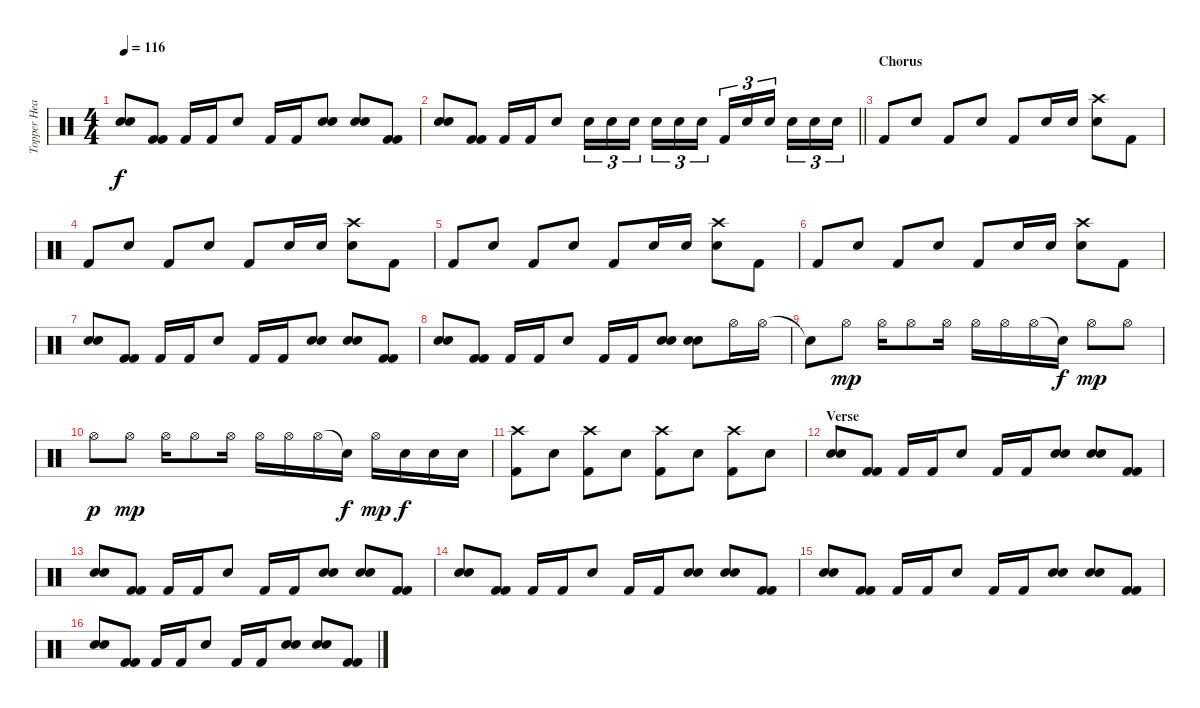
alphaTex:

\track ("Topper Headon - Percussion" "Topper Hea") {instrument percussion}
\staff {score}
\articulation defaults
\ts (4 4)
\tempo 116
\clef neutral
\ks c
("Snare (hit) 2" "Snare (hit) 2").8{dy f} ("Kick (hit) 2" "Kick (hit) 2").8 "Kick (hit) 2".16 "Kick (hit) 2".16 "Snare (hit) 2".8 "Kick (hit) 2".16 "Kick (hit) 2".16 ("Snare (hit) 2" "Snare (hit) 2").8 ("Snare (hit) 2" "Snare (hit) 2").8 ("Kick (hit) 2" "Kick (hit) 2").8 |
\barLineRight lightlight
("Snare (hit) 2" "Snare (hit) 2").8 ("Kick (hit) 2" "Kick (hit) 2").8 "Kick (hit) 2".16 "Kick (hit) 2".16 "Snare (hit) 2".8 "Snare (hit) 2".16{tu (3 2)} "Snare (hit) 2".16{tu (3 2)} "Snare (hit) 2".16{tu (3 2)} "Snare (hit) 2".16{tu (3 2)} "Snare (hit) 2".16{tu (3 2)} "Snare (hit) 2".16{tu (3 2)} "Kick (hit) 2".16{tu (3 2)} "Snare (hit) 2".16{tu (3 2)} "Snare (hit) 2".16{tu (3 2)} "Snare (hit) 2".16{tu (3 2)} "Snare (hit) 2".16{tu (3 2)} "Snare (hit) 2".16{tu (3 2)} |
\section ("" "Chorus")
"Kick (hit) 2".8 "Snare (hit) 2".8 "Kick (hit) 2".8 "Snare (hit) 2".8 "Kick (hit) 2".8 "Snare (hit) 2".16 "Snare (hit) 2".16 ("Crash high (hit)" "Snare (hit) 2").8 "Kick (hit) 2".8 |
"Kick (hit) 2".8 "Snare (hit) 2".8 "Kick (hit) 2".8 "Snare (hit) 2".8 "Kick (hit) 2".8 "Snare (hit) 2".16 "Snare (hit) 2".16 ("Crash high (hit)" "Snare (hit) 2").8 "Kick (hit) 2".8 |
"Kick (hit) 2".8 "Snare (hit) 2".8 "Kick (hit) 2".8 "Snare (hit) 2".8 "Kick (hit) 2".8 "Snare (hit) 2".16 "Snare (hit) 2".16 ("Crash high (hit)" "Snare (hit) 2").8 "Kick (hit) 2".8 |
"Kick (hit) 2".8 "Snare (hit) 2".8 "Kick (hit) 2".8 "Snare (hit) 2".8 "Kick (hit) 2".8 "Snare (hit) 2".16 "Snare (hit) 2".16 ("Crash high (hit)" "Snare (hit) 2").8 "Kick (hit) 2".8 |
("Snare (hit) 2" "Snare (hit) 2").8 ("Kick (hit) 2" "Kick (hit) 2").8 "Kick (hit) 2".16 "Kick (hit) 2".16 "Snare (hit) 2".8 "Kick (hit) 2".16 "Kick (hit) 2".16 ("Snare (hit) 2" "Snare (hit) 2").8 ("Snare (hit) 2" "Snare (hit) 2").8 ("Kick (hit) 2" "Kick (hit) 2").8 |
("Snare (hit) 2" "Snare (hit) 2").8 ("Kick (hit) 2" "Kick (hit) 2").8 "Kick (hit) 2".16 "Kick (hit) 2".16 "Snare (hit) 2".8 "Kick (hit) 2".16 "Kick (hit) 2".16 ("Snare (hit) 2" "Snare (hit) 2").8 ("Snare (hit) 2" "Snare (hit) 2").8 "Hi-Hat (open)".16 "Hi-Hat (open)".16 |
"Snare (hit)"{t}.8 "Hi-Hat (open)".8{dy mp} "Hi-Hat (open)".16 "Hi-Hat (open)".8 "Hi-Hat (open)".16 "Hi-Hat (open)".16 "Hi-Hat (open)".16 "Hi-Hat (open)".16 "Snare (hit)"{t}.16{dy f} "Hi-Hat (open)".8{dy mp} "Hi-Hat (open)".8 |
"Hi-Hat (open)".8{dy p} "Hi-Hat (open)".8{dy mp} "Hi-Hat (open)".16 "Hi-Hat (open)".8 "Hi-Hat (open)".16 "Hi-Hat (open)".16 "Hi-Hat (open)".16 "Hi-Hat (open)".16 "Snare (hit)"{t}.16{dy f} "Hi-Hat (open)".16{dy mp} "Snare (hit) 2".16{dy f} "Snare (hit) 2".16 "Snare (hit) 2".16 |
("Crash high (hit)" "Kick (hit) 2").8 "Snare (hit) 2".8 ("Crash high (hit)" "Kick (hit) 2").8 "Snare (hit) 2".8 ("Crash high (hit)" "Kick (hit) 2").8 "Snare (hit) 2".8 ("Crash high (hit)" "Kick (hit) 2").8 "Snare (hit) 2".8 |
\section ("" "Verse")
("Snare (hit) 2" "Snare (hit) 2").8 ("Kick (hit) 2" "Kick (hit) 2").8 "Kick (hit) 2".16 "Kick (hit) 2".16 "Snare (hit) 2".8 "Kick (hit) 2".16 "Kick (hit) 2".16 ("Snare (hit) 2" "Snare (hit) 2").8 ("Snare (hit) 2" "Snare (hit) 2").8 ("Kick (hit) 2" "Kick (hit) 2").8 |
("Snare (hit) 2" "Snare (hit) 2").8 ("Kick (hit) 2" "Kick (hit) 2").8 "Kick (hit) 2".16 "Kick (hit) 2".16 "Snare (hit) 2".8 "Kick (hit) 2".16 "Kick (hit) 2".16 ("Snare (hit) 2" "Snare (hit) 2").8 ("Snare (hit) 2" "Snare (hit) 2").8 ("Kick (hit) 2" "Kick (hit) 2").8 |
("Snare (hit) 2" "Snare (hit) 2").8 ("Kick (hit) 2" "Kick (hit) 2").8 "Kick (hit) 2".16 "Kick (hit) 2".16 "Snare (hit) 2".8 "Kick (hit) 2".16 "Kick (hit) 2".16 ("Snare (hit) 2" "Snare (hit) 2").8 ("Snare (hit) 2" "Snare (hit) 2").8 ("Kick (hit) 2" "Kick (hit) 2").8 |
("Snare (hit) 2" "Snare (hit) 2").8 ("Kick (hit) 2" "Kick (hit) 2").8 "Kick (hit) 2".16 "Kick (hit) 2".16 "Snare (hit) 2".8 "Kick (hit) 2".16 "Kick (hit) 2".16 ("Snare (hit) 2" "Snare (hit) 2").8 ("Snare (hit) 2" "Snare (hit) 2").8 ("Kick (hit) 2" "Kick (hit) 2").8 |
("Snare (hit) 2" "Snare (hit) 2").8 ("Kick (hit) 2" "Kick (hit) 2").8 "Kick (hit) 2".16 "Kick (hit) 2".16 "Snare (hit) 2".8 "Kick (hit) 2".16 "Kick (hit) 2".16 ("Snare (hit) 2" "Snare (hit) 2").8 ("Snare (hit) 2" "Snare (hit) 2").8 ("Kick (hit) 2" "Kick (hit) 2").8
